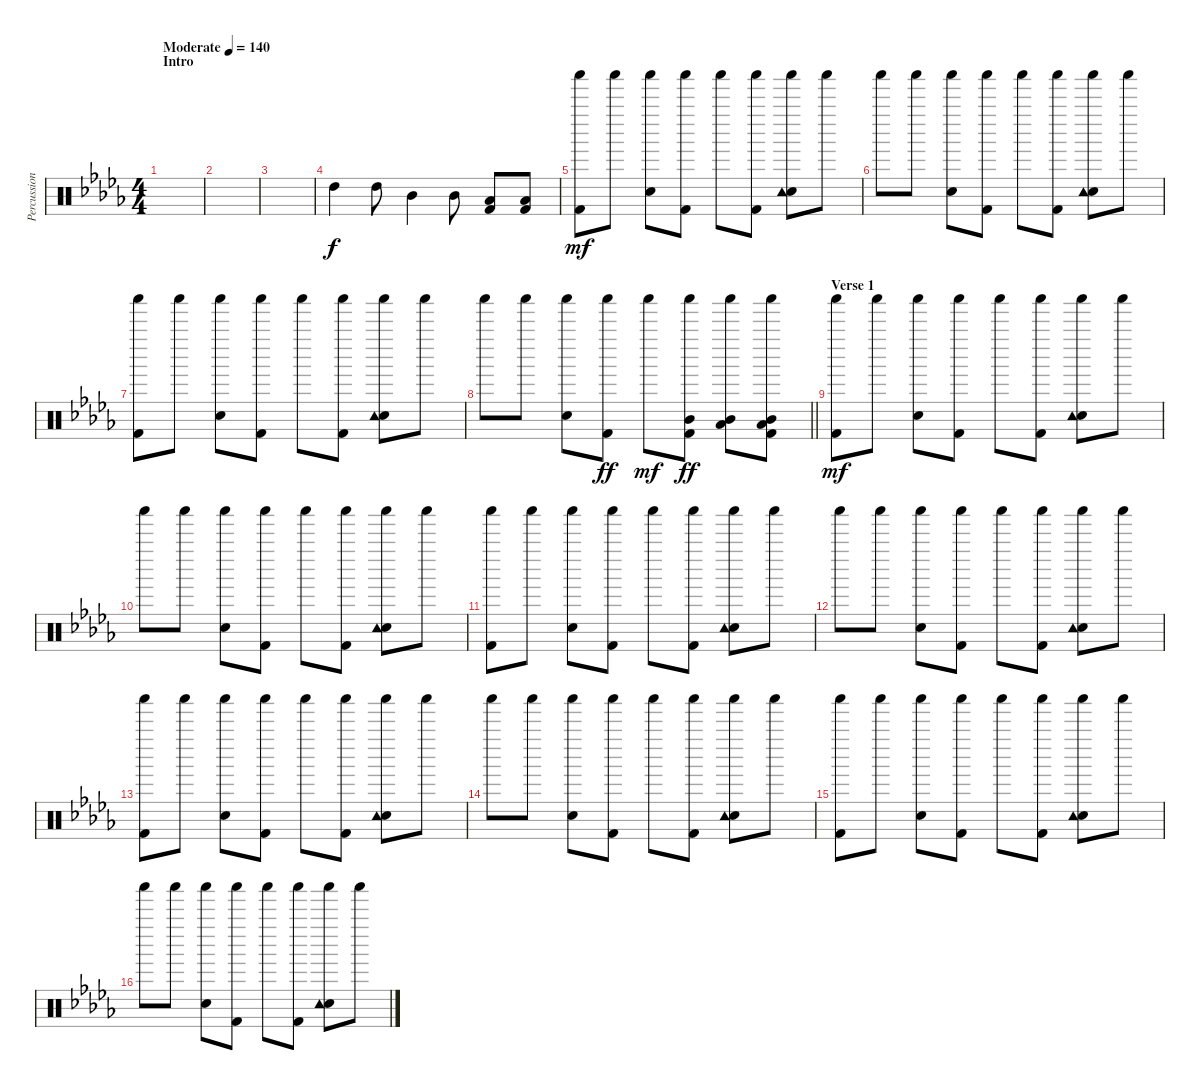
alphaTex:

\track ("Percussion" "Percussion") {instrument percussion}
\staff {score}
\articulation defaults
\ts (4 4)
\section ("" "Intro")
\tempo (140 "Moderate")
\clef neutral
\ks db
|
|
|
"High Tom (hit)".4 "High Tom (hit)".8 "Mid Tom (hit)".4 "Mid Tom (hit)".8 ("Low Floor Tom (hit)" "Kick (hit) 2").8 ("Low Floor Tom (hit)" "Kick (hit) 2").8 |
("Shaker (hit)" "Kick (hit) 2").8{dy mf} "Shaker (hit)".8 ("Shaker (hit)" "Snare (hit) 2").8 ("Shaker (hit)" "Kick (hit) 2").8 "Shaker (hit)".8 ("Shaker (hit)" "Kick (hit) 2").8 ("Shaker (hit)" "Snare (hit) 2" "Tambourine (hit)").8 "Shaker (hit)".8 |
"Shaker (hit)".8 "Shaker (hit)".8 ("Shaker (hit)" "Snare (hit) 2").8 ("Shaker (hit)" "Kick (hit) 2").8 "Shaker (hit)".8 ("Shaker (hit)" "Kick (hit) 2").8 ("Shaker (hit)" "Snare (hit) 2" "Tambourine (hit)").8 "Shaker (hit)".8 |
("Shaker (hit)" "Kick (hit) 2").8 "Shaker (hit)".8 ("Shaker (hit)" "Snare (hit) 2").8 ("Shaker (hit)" "Kick (hit) 2").8 "Shaker (hit)".8 ("Shaker (hit)" "Kick (hit) 2").8 ("Shaker (hit)" "Snare (hit) 2" "Tambourine (hit)").8 "Shaker (hit)".8 |
\barLineRight lightlight "Shaker (hit)".8 "Shaker (hit)".8
("Shaker (hit)" "Snare (hit) 2").8 ("Shaker (hit)" "Kick (hit) 2").8{dy ff} "Shaker (hit)".8{dy mf} ("Shaker (hit)" "Mid Tom (hit)" "Kick (hit) 2").8{dy ff} ("Shaker (hit)" "Mid Tom (hit)" "Low Floor Tom (hit)").8 ("Shaker (hit)" "Mid Tom (hit)" "Low Floor Tom (hit)" "Kick (hit) 2").8 |
\section ("" "Verse 1")
("Shaker (hit)" "Kick (hit) 2").8{dy mf} "Shaker (hit)".8 ("Shaker (hit)" "Snare (hit) 2").8 ("Shaker (hit)" "Kick (hit) 2").8 "Shaker (hit)".8 ("Shaker (hit)" "Kick (hit) 2").8 ("Shaker (hit)" "Snare (hit) 2" "Tambourine (hit)").8 "Shaker (hit)".8 |
"Shaker (hit)".8 "Shaker (hit)".8 ("Shaker (hit)" "Snare (hit) 2").8 ("Shaker (hit)" "Kick (hit) 2").8 "Shaker (hit)".8 ("Shaker (hit)" "Kick (hit) 2").8 ("Shaker (hit)" "Snare (hit) 2" "Tambourine (hit)").8 "Shaker (hit)".8 |
("Shaker (hit)" "Kick (hit) 2").8 "Shaker (hit)".8 ("Shaker (hit)" "Snare (hit) 2").8 ("Shaker (hit)" "Kick (hit) 2").8 "Shaker (hit)".8 ("Shaker (hit)" "Kick (hit) 2").8 ("Shaker (hit)" "Snare (hit) 2" "Tambourine (hit)").8 "Shaker (hit)".8 |
"Shaker (hit)".8 "Shaker (hit)".8 ("Shaker (hit)" "Snare (hit) 2").8 ("Shaker (hit)" "Kick (hit) 2").8 "Shaker (hit)".8 ("Shaker (hit)" "Kick (hit) 2").8 ("Shaker (hit)" "Snare (hit) 2" "Tambourine (hit)").8 "Shaker (hit)".8 |
("Shaker (hit)" "Kick (hit) 2").8 "Shaker (hit)".8 ("Shaker (hit)" "Snare (hit) 2").8 ("Shaker (hit)" "Kick (hit) 2").8 "Shaker (hit)".8 ("Shaker (hit)" "Kick (hit) 2").8 ("Shaker (hit)" "Snare (hit) 2" "Tambourine (hit)").8 "Shaker (hit)".8 |
"Shaker (hit)".8 "Shaker (hit)".8 ("Shaker (hit)" "Snare (hit) 2").8 ("Shaker (hit)" "Kick (hit) 2").8 "Shaker (hit)".8 ("Shaker (hit)" "Kick (hit) 2").8 ("Shaker (hit)" "Snare (hit) 2" "Tambourine (hit)").8 "Shaker (hit)".8 |
("Shaker (hit)" "Kick (hit) 2").8 "Shaker (hit)".8 ("Shaker (hit)" "Snare (hit) 2").8 ("Shaker (hit)" "Kick (hit) 2").8 "Shaker (hit)".8 ("Shaker (hit)" "Kick (hit) 2").8 ("Shaker (hit)" "Snare (hit) 2" "Tambourine (hit)").8 "Shaker (hit)".8 |
"Shaker (hit)".8 "Shaker (hit)".8 ("Shaker (hit)" "Snare (hit) 2").8 ("Shaker (hit)" "Kick (hit) 2").8 "Shaker (hit)".8 ("Shaker (hit)" "Kick (hit) 2").8 ("Shaker (hit)" "Snare (hit) 2" "Tambourine (hit)").8 "Shaker (hit)".8
